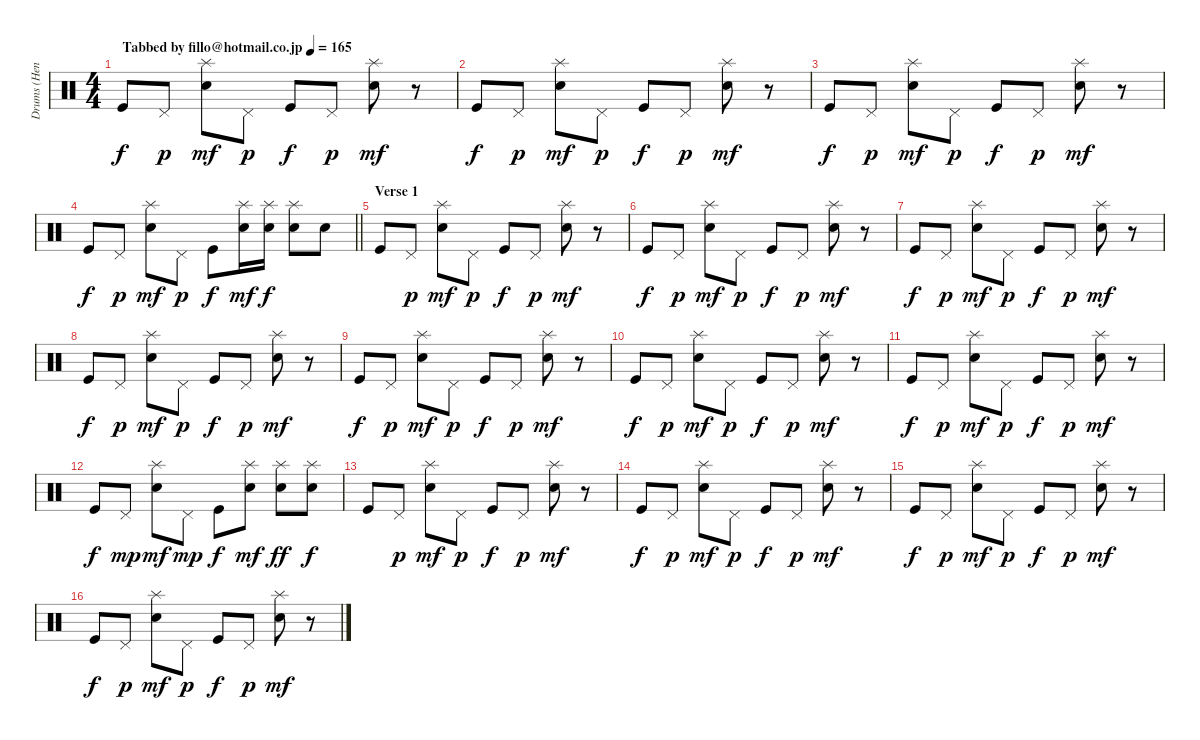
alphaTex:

\track ("Drums (Henry)" "Drums (Hen") {instrument percussion}
\staff {score}
\articulation defaults
\ts (4 4)
\tempo (165 "Tabbed by fillo@hotmail.co.jp")
\clef neutral
\ks c "Kick (hit)".8{dy f} "Pedal Hi-Hat (hit)".8{dy p}
("Snare (hit) 2" "Splash (hit)").8{dy mf} "Pedal Hi-Hat (hit)".8{dy p} "Kick (hit)".8{dy f} "Pedal Hi-Hat (hit)".8{dy p} ("Snare (hit) 2" "Splash (hit)").8{dy mf} r.8 |
"Kick (hit)".8{dy f} "Pedal Hi-Hat (hit)".8{dy p} ("Snare (hit) 2" "Splash (hit)").8{dy mf} "Pedal Hi-Hat (hit)".8{dy p} "Kick (hit)".8{dy f} "Pedal Hi-Hat (hit)".8{dy p} ("Snare (hit) 2" "Splash (hit)").8{dy mf} r.8 |
"Kick (hit)".8{dy f} "Pedal Hi-Hat (hit)".8{dy p} ("Snare (hit) 2" "Splash (hit)").8{dy mf} "Pedal Hi-Hat (hit)".8{dy p} "Kick (hit)".8{dy f} "Pedal Hi-Hat (hit)".8{dy p} ("Snare (hit) 2" "Splash (hit)").8{dy mf} r.8 |
\barLineRight lightlight "Kick (hit)".8{dy f} "Pedal Hi-Hat (hit)".8{dy p}
("Snare (hit) 2" "Splash (hit)").8{dy mf} "Pedal Hi-Hat (hit)".8{dy p} "Kick (hit)".8{dy f} ("Snare (hit) 2" "Splash (hit)").16{dy mf} ("Snare (hit) 2" "Splash (hit)").16{dy f} ("Snare (hit) 2" "Splash (hit)").8 "Snare (hit) 2".8 |
\section ("" "Verse 1")
"Kick (hit)".8 "Pedal Hi-Hat (hit)".8{dy p} ("Snare (hit) 2" "Splash (hit)").8{dy mf} "Pedal Hi-Hat (hit)".8{dy p} "Kick (hit)".8{dy f} "Pedal Hi-Hat (hit)".8{dy p} ("Snare (hit) 2" "Splash (hit)").8{dy mf} r.8 |
"Kick (hit)".8{dy f} "Pedal Hi-Hat (hit)".8{dy p} ("Snare (hit) 2" "Splash (hit)").8{dy mf} "Pedal Hi-Hat (hit)".8{dy p} "Kick (hit)".8{dy f} "Pedal Hi-Hat (hit)".8{dy p} ("Snare (hit) 2" "Splash (hit)").8{dy mf} r.8 |
"Kick (hit)".8{dy f} "Pedal Hi-Hat (hit)".8{dy p} ("Snare (hit) 2" "Splash (hit)").8{dy mf} "Pedal Hi-Hat (hit)".8{dy p} "Kick (hit)".8{dy f} "Pedal Hi-Hat (hit)".8{dy p} ("Snare (hit) 2" "Splash (hit)").8{dy mf} r.8 |
"Kick (hit)".8{dy f} "Pedal Hi-Hat (hit)".8{dy p} ("Snare (hit) 2" "Splash (hit)").8{dy mf} "Pedal Hi-Hat (hit)".8{dy p} "Kick (hit)".8{dy f} "Pedal Hi-Hat (hit)".8{dy p} ("Snare (hit) 2" "Splash (hit)").8{dy mf} r.8 |
"Kick (hit)".8{dy f} "Pedal Hi-Hat (hit)".8{dy p} ("Snare (hit) 2" "Splash (hit)").8{dy mf} "Pedal Hi-Hat (hit)".8{dy p} "Kick (hit)".8{dy f} "Pedal Hi-Hat (hit)".8{dy p} ("Snare (hit) 2" "Splash (hit)").8{dy mf} r.8 |
"Kick (hit)".8{dy f} "Pedal Hi-Hat (hit)".8{dy p} ("Snare (hit) 2" "Splash (hit)").8{dy mf} "Pedal Hi-Hat (hit)".8{dy p} "Kick (hit)".8{dy f} "Pedal Hi-Hat (hit)".8{dy p} ("Snare (hit) 2" "Splash (hit)").8{dy mf} r.8 |
"Kick (hit)".8{dy f} "Pedal Hi-Hat (hit)".8{dy p} ("Snare (hit) 2" "Splash (hit)").8{dy mf} "Pedal Hi-Hat (hit)".8{dy p} "Kick (hit)".8{dy f} "Pedal Hi-Hat (hit)".8{dy p} ("Snare (hit) 2" "Splash (hit)").8{dy mf} r.8 |
"Kick (hit)".8{dy f} "Pedal Hi-Hat (hit)".8{dy mp} ("Snare (hit) 2" "Splash (hit)").8{dy mf} "Pedal Hi-Hat (hit)".8{dy mp} "Kick (hit)".8{dy f} ("Snare (hit) 2" "Splash (hit)").8{dy mf} ("Snare (hit) 2" "Splash (hit)").8{dy ff} ("Snare (hit) 2" "Splash (hit)").8{dy f} |
"Kick (hit)".8 "Pedal Hi-Hat (hit)".8{dy p} ("Snare (hit) 2" "Splash (hit)").8{dy mf} "Pedal Hi-Hat (hit)".8{dy p} "Kick (hit)".8{dy f} "Pedal Hi-Hat (hit)".8{dy p} ("Snare (hit) 2" "Splash (hit)").8{dy mf} r.8 |
"Kick (hit)".8{dy f} "Pedal Hi-Hat (hit)".8{dy p} ("Snare (hit) 2" "Splash (hit)").8{dy mf} "Pedal Hi-Hat (hit)".8{dy p} "Kick (hit)".8{dy f} "Pedal Hi-Hat (hit)".8{dy p} ("Snare (hit) 2" "Splash (hit)").8{dy mf} r.8 |
"Kick (hit)".8{dy f} "Pedal Hi-Hat (hit)".8{dy p} ("Snare (hit) 2" "Splash (hit)").8{dy mf} "Pedal Hi-Hat (hit)".8{dy p} "Kick (hit)".8{dy f} "Pedal Hi-Hat (hit)".8{dy p} ("Snare (hit) 2" "Splash (hit)").8{dy mf} r.8 |
"Kick (hit)".8{dy f} "Pedal Hi-Hat (hit)".8{dy p} ("Snare (hit) 2" "Splash (hit)").8{dy mf} "Pedal Hi-Hat (hit)".8{dy p} "Kick (hit)".8{dy f} "Pedal Hi-Hat (hit)".8{dy p} ("Snare (hit) 2" "Splash (hit)").8{dy mf} r.8
